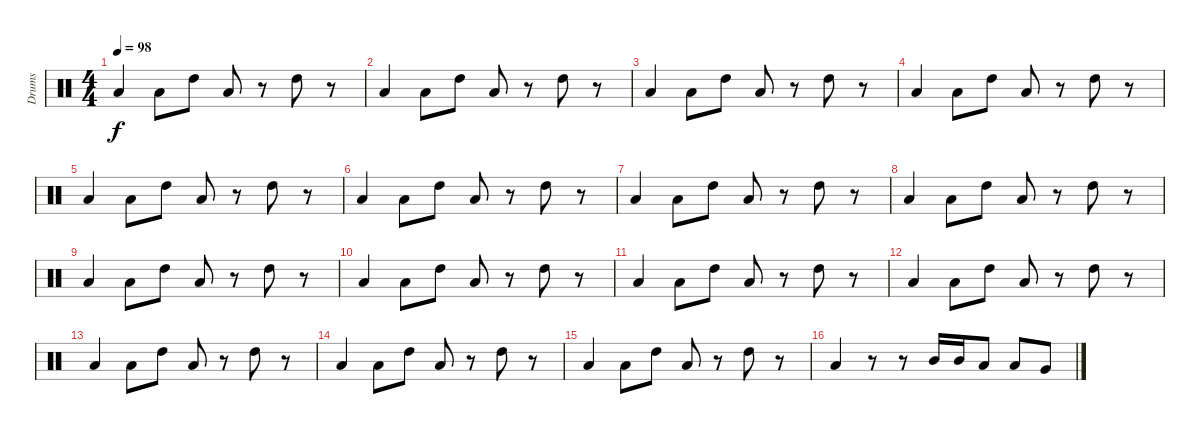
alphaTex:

\track ("Drums" "Drums") {instrument percussion}
\staff {score}
\articulation defaults
\ts (4 4)
\tempo 98
\clef neutral
\ks c "Low Floor Tom (hit)".4{dy f} "Low Tom (hit)".8 "High Tom (hit)".8 "Low Floor Tom (hit)".8
r.8 "High Tom (hit)".8 r.8 |
"Low Floor Tom (hit)".4 "Low Tom (hit)".8 "High Tom (hit)".8 "Low Floor Tom (hit)".8 r.8 "High Tom (hit)".8 r.8 |
"Low Floor Tom (hit)".4 "Low Tom (hit)".8 "High Tom (hit)".8 "Low Floor Tom (hit)".8 r.8 "High Tom (hit)".8 r.8 |
"Low Floor Tom (hit)".4 "Low Tom (hit)".8 "High Tom (hit)".8 "Low Floor Tom (hit)".8 r.8 "High Tom (hit)".8 r.8 |
"Low Floor Tom (hit)".4 "Low Tom (hit)".8 "High Tom (hit)".8 "Low Floor Tom (hit)".8 r.8 "High Tom (hit)".8 r.8 |
"Low Floor Tom (hit)".4 "Low Tom (hit)".8 "High Tom (hit)".8 "Low Floor Tom (hit)".8 r.8 "High Tom (hit)".8 r.8 |
"Low Floor Tom (hit)".4 "Low Tom (hit)".8 "High Tom (hit)".8 "Low Floor Tom (hit)".8 r.8 "High Tom (hit)".8 r.8 |
"Low Floor Tom (hit)".4 "Low Tom (hit)".8 "High Tom (hit)".8 "Low Floor Tom (hit)".8 r.8 "High Tom (hit)".8 r.8 |
"Low Floor Tom (hit)".4 "Low Tom (hit)".8 "High Tom (hit)".8 "Low Floor Tom (hit)".8 r.8 "High Tom (hit)".8 r.8 |
"Low Floor Tom (hit)".4 "Low Tom (hit)".8 "High Tom (hit)".8 "Low Floor Tom (hit)".8 r.8 "High Tom (hit)".8 r.8 |
"Low Floor Tom (hit)".4 "Low Tom (hit)".8 "High Tom (hit)".8 "Low Floor Tom (hit)".8 r.8 "High Tom (hit)".8 r.8 |
"Low Floor Tom (hit)".4 "Low Tom (hit)".8 "High Tom (hit)".8 "Low Floor Tom (hit)".8 r.8 "High Tom (hit)".8 r.8 |
"Low Floor Tom (hit)".4 "Low Tom (hit)".8 "High Tom (hit)".8 "Low Floor Tom (hit)".8 r.8 "High Tom (hit)".8 r.8 |
"Low Floor Tom (hit)".4 "Low Tom (hit)".8 "High Tom (hit)".8 "Low Floor Tom (hit)".8 r.8 "High Tom (hit)".8 r.8 |
"Low Floor Tom (hit)".4 "Low Tom (hit)".8 "High Tom (hit)".8 "Low Floor Tom (hit)".8 r.8 "High Tom (hit)".8 r.8 |
"Low Floor Tom (hit)".4 r.8 r.8 "Mid Tom (hit)".16 "Mid Tom (hit)".16 "Low Floor Tom (hit)".8 "Low Floor Tom (hit)".8 "Very Low Tom (hit)".8
